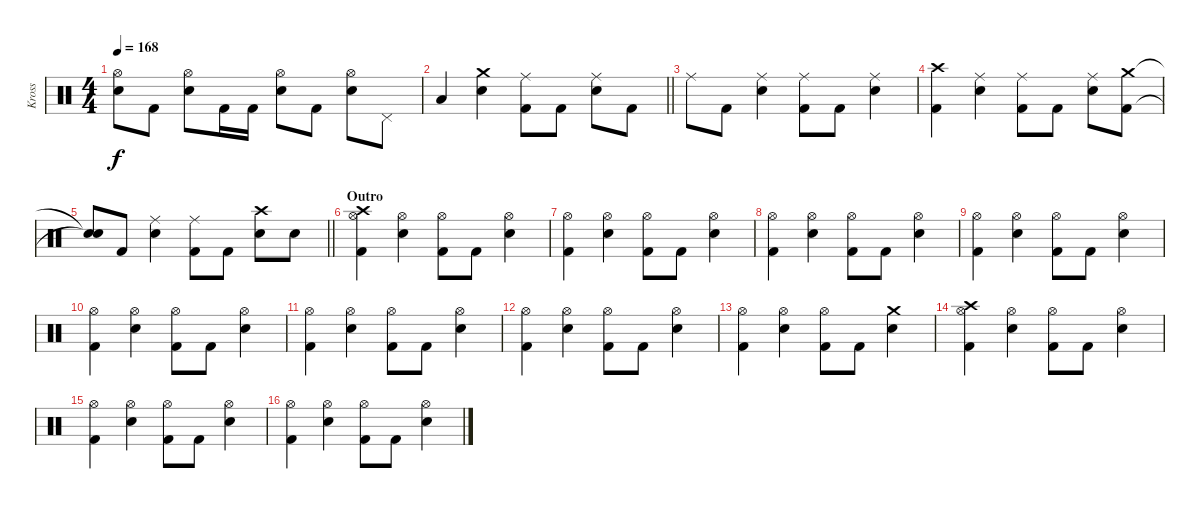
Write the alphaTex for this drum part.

\track ("Kross" "Kross") {instrument percussion}
\staff
\articulation defaults
\ts (4 4)
\tempo 168
\clef neutral
\ks c
("Hi-Hat (open)" "Electric Snare (hit)").8{dy f} "Kick (hit) 2".8 ("Hi-Hat (open)" "Electric Snare (hit)").8 "Kick (hit) 2".16 "Kick (hit) 2".16 ("Hi-Hat (open)" "Electric Snare (hit)").8 "Kick (hit) 2".8 ("Hi-Hat (open)" "Electric Snare (hit)").8 "Pedal Hi-Hat (hit)".8 |
\barLineRight lightlight "Low Tom (hit)".4
("Crash medium (hit)" "Electric Snare (hit)").4 ("Ride (middle)" "Kick (hit) 2").8 "Kick (hit) 2".8 ("Ride (middle)" "Electric Snare (hit)").8 "Kick (hit) 2".8 |
"Ride (middle)".8 "Kick (hit) 2".8 ("Ride (middle)" "Electric Snare (hit)").4 ("Ride (middle)" "Kick (hit) 2").8 "Kick (hit) 2".8 ("Ride (middle)" "Electric Snare (hit)").4 |
("Crash high (hit)" "Kick (hit) 2").4 ("Ride (middle)" "Electric Snare (hit)").4 ("Ride (middle)" "Kick (hit) 2").8 "Kick (hit) 2".8 ("Ride (middle)" "Electric Snare (hit)").8 ("Crash medium (hit)" "Kick (hit) 2").8 |
\barLineRight lightlight
("Snare (hit)"{t} "Snare (hit)"{t}).8 "Kick (hit) 2".8 ("Ride (middle)" "Electric Snare (hit)").4 ("Ride (middle)" "Kick (hit) 2").8 "Kick (hit) 2".8 ("Crash high (hit)" "Electric Snare (hit)").8 "Electric Snare (hit)".8 |
\section ("" "Outro")
("Crash high (hit)" "Hi-Hat (open)" "Kick (hit) 2").4 ("Hi-Hat (open)" "Electric Snare (hit)").4 ("Hi-Hat (open)" "Kick (hit) 2").8 "Kick (hit) 2".8 ("Hi-Hat (open)" "Electric Snare (hit)").4 |
("Hi-Hat (open)" "Kick (hit) 2").4 ("Hi-Hat (open)" "Electric Snare (hit)").4 ("Hi-Hat (open)" "Kick (hit) 2").8 "Kick (hit) 2".8 ("Hi-Hat (open)" "Electric Snare (hit)").4 |
("Hi-Hat (open)" "Kick (hit) 2").4 ("Hi-Hat (open)" "Electric Snare (hit)").4 ("Hi-Hat (open)" "Kick (hit) 2").8 "Kick (hit) 2".8 ("Hi-Hat (open)" "Electric Snare (hit)").4 |
("Hi-Hat (open)" "Kick (hit) 2").4 ("Hi-Hat (open)" "Electric Snare (hit)").4 ("Hi-Hat (open)" "Kick (hit) 2").8 "Kick (hit) 2".8 ("Hi-Hat (open)" "Electric Snare (hit)").4 |
("Hi-Hat (open)" "Kick (hit) 2").4 ("Hi-Hat (open)" "Electric Snare (hit)").4 ("Hi-Hat (open)" "Kick (hit) 2").8 "Kick (hit) 2".8 ("Hi-Hat (open)" "Electric Snare (hit)").4 |
("Hi-Hat (open)" "Kick (hit) 2").4 ("Hi-Hat (open)" "Electric Snare (hit)").4 ("Hi-Hat (open)" "Kick (hit) 2").8 "Kick (hit) 2".8 ("Hi-Hat (open)" "Electric Snare (hit)").4 |
("Hi-Hat (open)" "Kick (hit) 2").4 ("Hi-Hat (open)" "Electric Snare (hit)").4 ("Hi-Hat (open)" "Kick (hit) 2").8 "Kick (hit) 2".8 ("Hi-Hat (open)" "Electric Snare (hit)").4 |
("Hi-Hat (open)" "Kick (hit) 2").4 ("Hi-Hat (open)" "Electric Snare (hit)").4 ("Hi-Hat (open)" "Kick (hit) 2").8 "Kick (hit) 2".8 ("Crash medium (hit)" "Electric Snare (hit)").4 |
("Crash high (hit)" "Hi-Hat (open)" "Kick (hit) 2").4 ("Hi-Hat (open)" "Electric Snare (hit)").4 ("Hi-Hat (open)" "Kick (hit) 2").8 "Kick (hit) 2".8 ("Hi-Hat (open)" "Electric Snare (hit)").4 |
("Hi-Hat (open)" "Kick (hit) 2").4 ("Hi-Hat (open)" "Electric Snare (hit)").4 ("Hi-Hat (open)" "Kick (hit) 2").8 "Kick (hit) 2".8 ("Hi-Hat (open)" "Electric Snare (hit)").4 |
("Hi-Hat (open)" "Kick (hit) 2").4 ("Hi-Hat (open)" "Electric Snare (hit)").4 ("Hi-Hat (open)" "Kick (hit) 2").8 "Kick (hit) 2".8 ("Hi-Hat (open)" "Electric Snare (hit)").4
